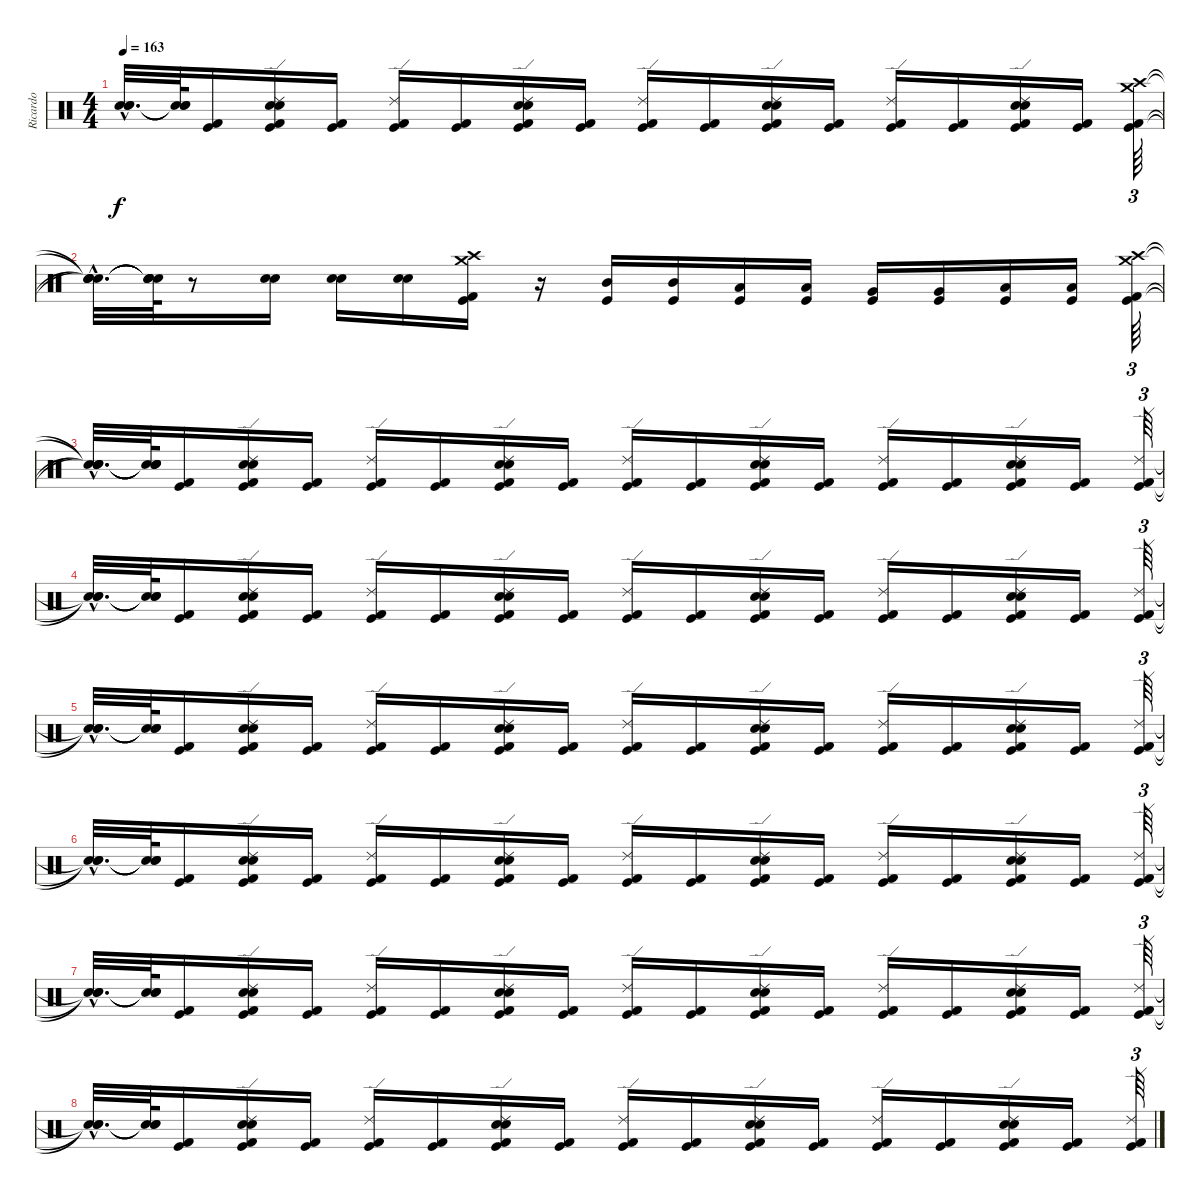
\track ("Ricardo" "Ricardo") {instrument percussion}
\staff {score}
\articulation defaults
\ts (4 4)
\tempo 163
\clef neutral
\ks c
("Snare (hit)"{hac t} "Snare (hit)"{hac t} "Snare (hit)"{hac t}).32{d dy f} ("Snare (hit)"{t} "Snare (hit)"{t} "Snare (hit)"{t}).64 ("Kick (hit) 2" "Kick (hit)").16 ("Ride (edge) 2" "Electric Snare (hit)" "Snare (hit) 2" "Kick (hit) 2" "Kick (hit)").16 ("Kick (hit) 2" "Kick (hit)").16 ("Ride (edge) 2" "Kick (hit) 2" "Kick (hit)").16 ("Kick (hit) 2" "Kick (hit)").16 ("Ride (edge) 2" "Electric Snare (hit)" "Snare (hit) 2" "Kick (hit) 2" "Kick (hit)").16 ("Kick (hit) 2" "Kick (hit)").16 ("Ride (edge) 2" "Kick (hit) 2" "Kick (hit)").16 ("Kick (hit) 2" "Kick (hit)").16 ("Ride (edge) 2" "Electric Snare (hit)" "Snare (hit) 2" "Kick (hit) 2" "Kick (hit)").16 ("Kick (hit) 2" "Kick (hit)").16 ("Ride (edge) 2" "Kick (hit) 2" "Kick (hit)").16 ("Kick (hit) 2" "Kick (hit)").16 ("Ride (edge) 2" "Electric Snare (hit)" "Snare (hit) 2" "Kick (hit) 2" "Kick (hit)").16 ("Kick (hit) 2" "Kick (hit)").16 ("Crash high (hit)" "Crash medium (hit)" "Kick (hit) 2" "Kick (hit)").64{tu (3 2)} |
("Snare (hit)"{hac t} "Snare (hit)"{hac t} "Snare (hit)"{hac t} "Snare (hit)"{hac t}).32{d} ("Snare (hit)"{t} "Snare (hit)"{t} "Snare (hit)"{t} "Snare (hit)"{t}).64 r.8 ("Electric Snare (hit)" "Snare (hit) 2").16 ("Electric Snare (hit)" "Snare (hit) 2").16 ("Electric Snare (hit)" "Snare (hit) 2").16 ("Crash high (hit)" "Crash medium (hit)" "Kick (hit) 2" "Kick (hit)").16 r.16 ("Mid Tom (hit)" "Kick (hit)").16 ("Mid Tom (hit)" "Kick (hit)").16 ("Low Tom (hit)" "Kick (hit)").16 ("Low Tom (hit)" "Kick (hit)").16 ("Very Low Tom (hit)" "Kick (hit)").16 ("Very Low Tom (hit)" "Kick (hit)").16 ("Low Floor Tom (hit)" "Kick (hit)").16 ("Low Floor Tom (hit)" "Kick (hit)").16 ("Crash high (hit)" "Crash medium (hit)" "Kick (hit) 2" "Kick (hit)").64{tu (3 2)} |
("Snare (hit)"{hac t} "Snare (hit)"{hac t} "Snare (hit)"{hac t} "Snare (hit)"{hac t}).32{d} ("Snare (hit)"{t} "Snare (hit)"{t} "Snare (hit)"{t} "Snare (hit)"{t}).64 ("Kick (hit) 2" "Kick (hit)").16 ("Ride (edge) 2" "Electric Snare (hit)" "Snare (hit) 2" "Kick (hit) 2" "Kick (hit)").16 ("Kick (hit) 2" "Kick (hit)").16 ("Ride (edge) 2" "Kick (hit) 2" "Kick (hit)").16 ("Kick (hit) 2" "Kick (hit)").16 ("Ride (edge) 2" "Electric Snare (hit)" "Snare (hit) 2" "Kick (hit) 2" "Kick (hit)").16 ("Kick (hit) 2" "Kick (hit)").16 ("Ride (edge) 2" "Kick (hit) 2" "Kick (hit)").16 ("Kick (hit) 2" "Kick (hit)").16 ("Ride (edge) 2" "Electric Snare (hit)" "Snare (hit) 2" "Kick (hit) 2" "Kick (hit)").16 ("Kick (hit) 2" "Kick (hit)").16 ("Ride (edge) 2" "Kick (hit) 2" "Kick (hit)").16 ("Kick (hit) 2" "Kick (hit)").16 ("Ride (edge) 2" "Electric Snare (hit)" "Snare (hit) 2" "Kick (hit) 2" "Kick (hit)").16 ("Kick (hit) 2" "Kick (hit)").16 ("Ride (edge) 2" "Kick (hit) 2" "Kick (hit)").64{tu (3 2)} |
("Snare (hit)"{hac t} "Snare (hit)"{hac t} "Snare (hit)"{hac t}).32{d} ("Snare (hit)"{t} "Snare (hit)"{t} "Snare (hit)"{t}).64 ("Kick (hit) 2" "Kick (hit)").16 ("Ride (edge) 2" "Electric Snare (hit)" "Snare (hit) 2" "Kick (hit) 2" "Kick (hit)").16 ("Kick (hit) 2" "Kick (hit)").16 ("Ride (edge) 2" "Kick (hit) 2" "Kick (hit)").16 ("Kick (hit) 2" "Kick (hit)").16 ("Ride (edge) 2" "Electric Snare (hit)" "Snare (hit) 2" "Kick (hit) 2" "Kick (hit)").16 ("Kick (hit) 2" "Kick (hit)").16 ("Ride (edge) 2" "Kick (hit) 2" "Kick (hit)").16 ("Kick (hit) 2" "Kick (hit)").16 ("Ride (edge) 2" "Electric Snare (hit)" "Snare (hit) 2" "Kick (hit) 2" "Kick (hit)").16 ("Kick (hit) 2" "Kick (hit)").16 ("Ride (edge) 2" "Kick (hit) 2" "Kick (hit)").16 ("Kick (hit) 2" "Kick (hit)").16 ("Ride (edge) 2" "Electric Snare (hit)" "Snare (hit) 2" "Kick (hit) 2" "Kick (hit)").16 ("Kick (hit) 2" "Kick (hit)").16 ("Ride (edge) 2" "Kick (hit) 2" "Kick (hit)").64{tu (3 2)} |
("Snare (hit)"{hac t} "Snare (hit)"{hac t} "Snare (hit)"{hac t}).32{d} ("Snare (hit)"{t} "Snare (hit)"{t} "Snare (hit)"{t}).64 ("Kick (hit) 2" "Kick (hit)").16 ("Ride (edge) 2" "Electric Snare (hit)" "Snare (hit) 2" "Kick (hit) 2" "Kick (hit)").16 ("Kick (hit) 2" "Kick (hit)").16 ("Ride (edge) 2" "Kick (hit) 2" "Kick (hit)").16 ("Kick (hit) 2" "Kick (hit)").16 ("Ride (edge) 2" "Electric Snare (hit)" "Snare (hit) 2" "Kick (hit) 2" "Kick (hit)").16 ("Kick (hit) 2" "Kick (hit)").16 ("Ride (edge) 2" "Kick (hit) 2" "Kick (hit)").16 ("Kick (hit) 2" "Kick (hit)").16 ("Ride (edge) 2" "Electric Snare (hit)" "Snare (hit) 2" "Kick (hit) 2" "Kick (hit)").16 ("Kick (hit) 2" "Kick (hit)").16 ("Ride (edge) 2" "Kick (hit) 2" "Kick (hit)").16 ("Kick (hit) 2" "Kick (hit)").16 ("Ride (edge) 2" "Electric Snare (hit)" "Snare (hit) 2" "Kick (hit) 2" "Kick (hit)").16 ("Kick (hit) 2" "Kick (hit)").16 ("Ride (edge) 2" "Kick (hit) 2" "Kick (hit)").64{tu (3 2)} |
("Snare (hit)"{hac t} "Snare (hit)"{hac t} "Snare (hit)"{hac t}).32{d} ("Snare (hit)"{t} "Snare (hit)"{t} "Snare (hit)"{t}).64 ("Kick (hit) 2" "Kick (hit)").16 ("Ride (edge) 2" "Electric Snare (hit)" "Snare (hit) 2" "Kick (hit) 2" "Kick (hit)").16 ("Kick (hit) 2" "Kick (hit)").16 ("Ride (edge) 2" "Kick (hit) 2" "Kick (hit)").16 ("Kick (hit) 2" "Kick (hit)").16 ("Ride (edge) 2" "Electric Snare (hit)" "Snare (hit) 2" "Kick (hit) 2" "Kick (hit)").16 ("Kick (hit) 2" "Kick (hit)").16 ("Ride (edge) 2" "Kick (hit) 2" "Kick (hit)").16 ("Kick (hit) 2" "Kick (hit)").16 ("Ride (edge) 2" "Electric Snare (hit)" "Snare (hit) 2" "Kick (hit) 2" "Kick (hit)").16 ("Kick (hit) 2" "Kick (hit)").16 ("Ride (edge) 2" "Kick (hit) 2" "Kick (hit)").16 ("Kick (hit) 2" "Kick (hit)").16 ("Ride (edge) 2" "Electric Snare (hit)" "Snare (hit) 2" "Kick (hit) 2" "Kick (hit)").16 ("Kick (hit) 2" "Kick (hit)").16 ("Ride (edge) 2" "Kick (hit) 2" "Kick (hit)").64{tu (3 2)} |
("Snare (hit)"{hac t} "Snare (hit)"{hac t} "Snare (hit)"{hac t}).32{d} ("Snare (hit)"{t} "Snare (hit)"{t} "Snare (hit)"{t}).64 ("Kick (hit) 2" "Kick (hit)").16 ("Ride (edge) 2" "Electric Snare (hit)" "Snare (hit) 2" "Kick (hit) 2" "Kick (hit)").16 ("Kick (hit) 2" "Kick (hit)").16 ("Ride (edge) 2" "Kick (hit) 2" "Kick (hit)").16 ("Kick (hit) 2" "Kick (hit)").16 ("Ride (edge) 2" "Electric Snare (hit)" "Snare (hit) 2" "Kick (hit) 2" "Kick (hit)").16 ("Kick (hit) 2" "Kick (hit)").16 ("Ride (edge) 2" "Kick (hit) 2" "Kick (hit)").16 ("Kick (hit) 2" "Kick (hit)").16 ("Ride (edge) 2" "Electric Snare (hit)" "Snare (hit) 2" "Kick (hit) 2" "Kick (hit)").16 ("Kick (hit) 2" "Kick (hit)").16 ("Ride (edge) 2" "Kick (hit) 2" "Kick (hit)").16 ("Kick (hit) 2" "Kick (hit)").16 ("Ride (edge) 2" "Electric Snare (hit)" "Snare (hit) 2" "Kick (hit) 2" "Kick (hit)").16 ("Kick (hit) 2" "Kick (hit)").16 ("Ride (edge) 2" "Kick (hit) 2" "Kick (hit)").64{tu (3 2)} |
("Snare (hit)"{hac t} "Snare (hit)"{hac t} "Snare (hit)"{hac t}).32{d} ("Snare (hit)"{t} "Snare (hit)"{t} "Snare (hit)"{t}).64 ("Kick (hit) 2" "Kick (hit)").16 ("Ride (edge) 2" "Electric Snare (hit)" "Snare (hit) 2" "Kick (hit) 2" "Kick (hit)").16 ("Kick (hit) 2" "Kick (hit)").16 ("Ride (edge) 2" "Kick (hit) 2" "Kick (hit)").16 ("Kick (hit) 2" "Kick (hit)").16 ("Ride (edge) 2" "Electric Snare (hit)" "Snare (hit) 2" "Kick (hit) 2" "Kick (hit)").16 ("Kick (hit) 2" "Kick (hit)").16 ("Ride (edge) 2" "Kick (hit) 2" "Kick (hit)").16 ("Kick (hit) 2" "Kick (hit)").16 ("Ride (edge) 2" "Electric Snare (hit)" "Snare (hit) 2" "Kick (hit) 2" "Kick (hit)").16 ("Kick (hit) 2" "Kick (hit)").16 ("Ride (edge) 2" "Kick (hit) 2" "Kick (hit)").16 ("Kick (hit) 2" "Kick (hit)").16 ("Ride (edge) 2" "Electric Snare (hit)" "Snare (hit) 2" "Kick (hit) 2" "Kick (hit)").16 ("Kick (hit) 2" "Kick (hit)").16 ("Ride (edge) 2" "Kick (hit) 2" "Kick (hit)").64{tu (3 2)}
